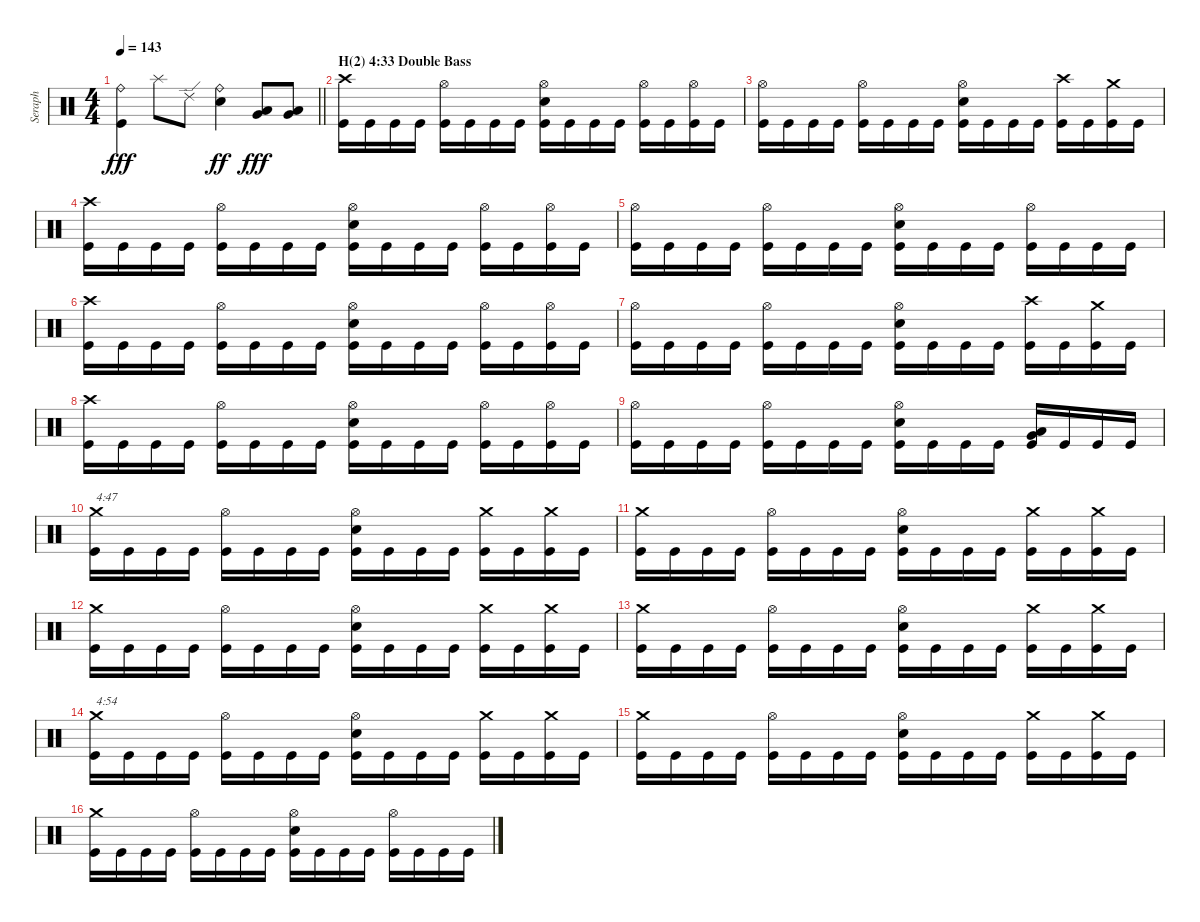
\track ("Seraph" "Seraph") {instrument percussion}
\staff {score}
\articulation defaults
\ts (4 4)
\tempo 143
\clef neutral
\barLineRight lightlight
\ks c
("Ride (bell)" "Kick (hit)").4{dy fff} "Splash (hit)".8 "Ride (edge) 2".8 ("Ride (bell)" "Electric Snare (hit)").4{dy ff} ("Very Low Tom (hit)" "Low Floor Tom (hit)").8{dy fff} ("Very Low Tom (hit)" "Low Floor Tom (hit)").8 |
\section ("" "H(2) 4:33 Double Bass")
("Crash high (hit)" "Kick (hit)").16 "Kick (hit)".16 "Kick (hit)".16 "Kick (hit)".16 ("Hi-Hat (open)" "Kick (hit)").16 "Kick (hit)".16 "Kick (hit)".16 "Kick (hit)".16 ("Hi-Hat (open)" "Electric Snare (hit)" "Kick (hit)").16 "Kick (hit)".16 "Kick (hit)".16 "Kick (hit)".16 ("Hi-Hat (open)" "Kick (hit)").16 "Kick (hit)".16 ("Hi-Hat (open)" "Kick (hit)").16 "Kick (hit)".16 |
("Hi-Hat (open)" "Kick (hit)").16 "Kick (hit)".16 "Kick (hit)".16 "Kick (hit)".16 ("Hi-Hat (open)" "Kick (hit)").16 "Kick (hit)".16 "Kick (hit)".16 "Kick (hit)".16 ("Hi-Hat (open)" "Electric Snare (hit)" "Kick (hit)").16 "Kick (hit)".16 "Kick (hit)".16 "Kick (hit)".16 ("Crash high (hit)" "Kick (hit)").16 "Kick (hit)".16 ("Crash medium (hit)" "Kick (hit)").16 "Kick (hit)".16 |
("Crash high (hit)" "Kick (hit)").16 "Kick (hit)".16 "Kick (hit)".16 "Kick (hit)".16 ("Hi-Hat (open)" "Kick (hit)").16 "Kick (hit)".16 "Kick (hit)".16 "Kick (hit)".16 ("Hi-Hat (open)" "Electric Snare (hit)" "Kick (hit)").16 "Kick (hit)".16 "Kick (hit)".16 "Kick (hit)".16 ("Hi-Hat (open)" "Kick (hit)").16 "Kick (hit)".16 ("Hi-Hat (open)" "Kick (hit)").16 "Kick (hit)".16 |
("Hi-Hat (open)" "Kick (hit)").16 "Kick (hit)".16 "Kick (hit)".16 "Kick (hit)".16 ("Hi-Hat (open)" "Kick (hit)").16 "Kick (hit)".16 "Kick (hit)".16 "Kick (hit)".16 ("Hi-Hat (open)" "Electric Snare (hit)" "Kick (hit)").16 "Kick (hit)".16 "Kick (hit)".16 "Kick (hit)".16 ("Hi-Hat (open)" "Kick (hit)").16 "Kick (hit)".16 "Kick (hit)".16 "Kick (hit)".16 |
("Crash high (hit)" "Kick (hit)").16 "Kick (hit)".16 "Kick (hit)".16 "Kick (hit)".16 ("Hi-Hat (open)" "Kick (hit)").16 "Kick (hit)".16 "Kick (hit)".16 "Kick (hit)".16 ("Hi-Hat (open)" "Electric Snare (hit)" "Kick (hit)").16 "Kick (hit)".16 "Kick (hit)".16 "Kick (hit)".16 ("Hi-Hat (open)" "Kick (hit)").16 "Kick (hit)".16 ("Hi-Hat (open)" "Kick (hit)").16 "Kick (hit)".16 |
("Hi-Hat (open)" "Kick (hit)").16 "Kick (hit)".16 "Kick (hit)".16 "Kick (hit)".16 ("Hi-Hat (open)" "Kick (hit)").16 "Kick (hit)".16 "Kick (hit)".16 "Kick (hit)".16 ("Hi-Hat (open)" "Electric Snare (hit)" "Kick (hit)").16 "Kick (hit)".16 "Kick (hit)".16 "Kick (hit)".16 ("Crash high (hit)" "Kick (hit)").16 "Kick (hit)".16 ("Crash medium (hit)" "Kick (hit)").16 "Kick (hit)".16 |
("Crash high (hit)" "Kick (hit)").16 "Kick (hit)".16 "Kick (hit)".16 "Kick (hit)".16 ("Hi-Hat (open)" "Kick (hit)").16 "Kick (hit)".16 "Kick (hit)".16 "Kick (hit)".16 ("Hi-Hat (open)" "Electric Snare (hit)" "Kick (hit)").16 "Kick (hit)".16 "Kick (hit)".16 "Kick (hit)".16 ("Hi-Hat (open)" "Kick (hit)").16 "Kick (hit)".16 ("Hi-Hat (open)" "Kick (hit)").16 "Kick (hit)".16 |
("Hi-Hat (open)" "Kick (hit)").16 "Kick (hit)".16 "Kick (hit)".16 "Kick (hit)".16 ("Hi-Hat (open)" "Kick (hit)").16 "Kick (hit)".16 "Kick (hit)".16 "Kick (hit)".16 ("Hi-Hat (open)" "Electric Snare (hit)" "Kick (hit)").16 "Kick (hit)".16 "Kick (hit)".16 "Kick (hit)".16 ("Low Floor Tom (hit)" "Very Low Tom (hit)" "Kick (hit)").16 "Kick (hit)".16 "Kick (hit)".16 "Kick (hit)".16 |
("Crash medium (hit)" "Kick (hit)").16{txt "4:47"} "Kick (hit)".16 "Kick (hit)".16 "Kick (hit)".16 ("Hi-Hat (open)" "Kick (hit)").16 "Kick (hit)".16 "Kick (hit)".16 "Kick (hit)".16 ("Hi-Hat (open)" "Electric Snare (hit)" "Kick (hit)").16 "Kick (hit)".16 "Kick (hit)".16 "Kick (hit)".16 ("Crash medium (hit)" "Kick (hit)").16 "Kick (hit)".16 ("Crash medium (hit)" "Kick (hit)").16 "Kick (hit)".16 |
("Crash medium (hit)" "Kick (hit)").16 "Kick (hit)".16 "Kick (hit)".16 "Kick (hit)".16 ("Hi-Hat (open)" "Kick (hit)").16 "Kick (hit)".16 "Kick (hit)".16 "Kick (hit)".16 ("Hi-Hat (open)" "Electric Snare (hit)" "Kick (hit)").16 "Kick (hit)".16 "Kick (hit)".16 "Kick (hit)".16 ("Crash medium (hit)" "Kick (hit)").16 "Kick (hit)".16 ("Crash medium (hit)" "Kick (hit)").16 "Kick (hit)".16 |
("Crash medium (hit)" "Kick (hit)").16 "Kick (hit)".16 "Kick (hit)".16 "Kick (hit)".16 ("Hi-Hat (open)" "Kick (hit)").16 "Kick (hit)".16 "Kick (hit)".16 "Kick (hit)".16 ("Hi-Hat (open)" "Electric Snare (hit)" "Kick (hit)").16 "Kick (hit)".16 "Kick (hit)".16 "Kick (hit)".16 ("Crash medium (hit)" "Kick (hit)").16 "Kick (hit)".16 ("Crash medium (hit)" "Kick (hit)").16 "Kick (hit)".16 |
("Crash medium (hit)" "Kick (hit)").16 "Kick (hit)".16 "Kick (hit)".16 "Kick (hit)".16 ("Hi-Hat (open)" "Kick (hit)").16 "Kick (hit)".16 "Kick (hit)".16 "Kick (hit)".16 ("Hi-Hat (open)" "Electric Snare (hit)" "Kick (hit)").16 "Kick (hit)".16 "Kick (hit)".16 "Kick (hit)".16 ("Crash medium (hit)" "Kick (hit)").16 "Kick (hit)".16 ("Crash medium (hit)" "Kick (hit)").16 "Kick (hit)".16 |
("Crash medium (hit)" "Kick (hit)").16{txt "4:54"} "Kick (hit)".16 "Kick (hit)".16 "Kick (hit)".16 ("Hi-Hat (open)" "Kick (hit)").16 "Kick (hit)".16 "Kick (hit)".16 "Kick (hit)".16 ("Hi-Hat (open)" "Electric Snare (hit)" "Kick (hit)").16 "Kick (hit)".16 "Kick (hit)".16 "Kick (hit)".16 ("Crash medium (hit)" "Kick (hit)").16 "Kick (hit)".16 ("Crash medium (hit)" "Kick (hit)").16 "Kick (hit)".16 |
("Crash medium (hit)" "Kick (hit)").16 "Kick (hit)".16 "Kick (hit)".16 "Kick (hit)".16 ("Hi-Hat (open)" "Kick (hit)").16 "Kick (hit)".16 "Kick (hit)".16 "Kick (hit)".16 ("Hi-Hat (open)" "Electric Snare (hit)" "Kick (hit)").16 "Kick (hit)".16 "Kick (hit)".16 "Kick (hit)".16 ("Crash medium (hit)" "Kick (hit)").16 "Kick (hit)".16 ("Crash medium (hit)" "Kick (hit)").16 "Kick (hit)".16 |
("Crash medium (hit)" "Kick (hit)").16 "Kick (hit)".16 "Kick (hit)".16 "Kick (hit)".16 ("Hi-Hat (open)" "Kick (hit)").16 "Kick (hit)".16 "Kick (hit)".16 "Kick (hit)".16 ("Hi-Hat (open)" "Electric Snare (hit)" "Kick (hit)").16 "Kick (hit)".16 "Kick (hit)".16 "Kick (hit)".16 ("Hi-Hat (open)" "Kick (hit)").16 "Kick (hit)".16 "Kick (hit)".16 "Kick (hit)".16
